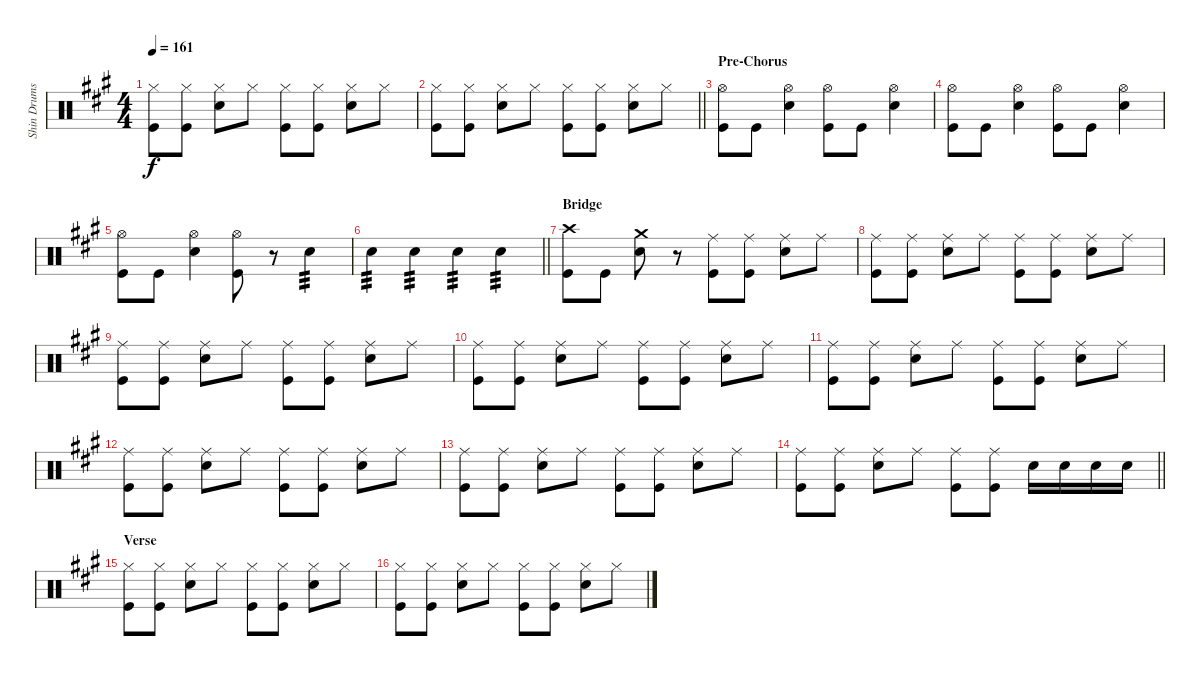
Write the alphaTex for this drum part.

\track ("Shin Drums" "Shin Drums") {instrument percussion}
\staff {score}
\articulation defaults
\ts (4 4)
\tempo 161
\clef neutral
\ks a
("Hi-Hat (closed)" "Kick (hit)").8{dy f} ("Hi-Hat (closed)" "Kick (hit)").8 ("Hi-Hat (closed)" "Snare (hit) 2").8 "Hi-Hat (closed)".8 ("Hi-Hat (closed)" "Kick (hit)").8 ("Hi-Hat (closed)" "Kick (hit)").8 ("Hi-Hat (closed)" "Snare (hit) 2").8 "Hi-Hat (closed)".8 |
\barLineRight lightlight
("Hi-Hat (closed)" "Kick (hit)").8 ("Hi-Hat (closed)" "Kick (hit)").8 ("Hi-Hat (closed)" "Snare (hit) 2").8 "Hi-Hat (closed)".8 ("Hi-Hat (closed)" "Kick (hit)").8 ("Hi-Hat (closed)" "Kick (hit)").8 ("Hi-Hat (closed)" "Snare (hit) 2").8 "Hi-Hat (closed)".8 |
\section ("" "Pre-Chorus")
("Hi-Hat (open)" "Kick (hit)").8 "Kick (hit)".8 ("Hi-Hat (open)" "Snare (hit) 2").4 ("Hi-Hat (open)" "Kick (hit)").8 "Kick (hit)".8 ("Hi-Hat (open)" "Snare (hit) 2").4 |
("Hi-Hat (open)" "Kick (hit)").8 "Kick (hit)".8 ("Hi-Hat (open)" "Snare (hit) 2").4 ("Hi-Hat (open)" "Kick (hit)").8 "Kick (hit)".8 ("Hi-Hat (open)" "Snare (hit) 2").4 |
("Hi-Hat (open)" "Kick (hit)").8 "Kick (hit)".8 ("Hi-Hat (open)" "Snare (hit) 2").4 ("Hi-Hat (open)" "Kick (hit)").8 r.8 "Snare (hit) 2".4{tp 3} |
\barLineRight lightlight "Snare (hit) 2".4{tp 3} "Snare (hit) 2".4{tp 3} "Snare (hit) 2".4{tp 3} "Snare (hit) 2".4{tp 3}
|
\section ("" "Bridge")
("Crash high (hit)" "Kick (hit)").8 "Kick (hit)".8 ("Crash medium (hit)" "Snare (hit) 2").8 r.8 ("Ride (middle)" "Kick (hit)").8 ("Ride (middle)" "Kick (hit)").8 ("Ride (middle)" "Snare (hit) 2").8 "Ride (middle)".8 |
("Ride (middle)" "Kick (hit)").8 ("Ride (middle)" "Kick (hit)").8 ("Ride (middle)" "Snare (hit) 2").8 "Ride (middle)".8 ("Ride (middle)" "Kick (hit)").8 ("Ride (middle)" "Kick (hit)").8 ("Ride (middle)" "Snare (hit) 2").8 "Ride (middle)".8 |
("Ride (middle)" "Kick (hit)").8 ("Ride (middle)" "Kick (hit)").8 ("Ride (middle)" "Snare (hit) 2").8 "Ride (middle)".8 ("Ride (middle)" "Kick (hit)").8 ("Ride (middle)" "Kick (hit)").8 ("Ride (middle)" "Snare (hit) 2").8 "Ride (middle)".8 |
("Ride (middle)" "Kick (hit)").8 ("Ride (middle)" "Kick (hit)").8 ("Ride (middle)" "Snare (hit) 2").8 "Ride (middle)".8 ("Ride (middle)" "Kick (hit)").8 ("Ride (middle)" "Kick (hit)").8 ("Ride (middle)" "Snare (hit) 2").8 "Ride (middle)".8 |
("Ride (middle)" "Kick (hit)").8 ("Ride (middle)" "Kick (hit)").8 ("Ride (middle)" "Snare (hit) 2").8 "Ride (middle)".8 ("Ride (middle)" "Kick (hit)").8 ("Ride (middle)" "Kick (hit)").8 ("Ride (middle)" "Snare (hit) 2").8 "Ride (middle)".8 |
("Ride (middle)" "Kick (hit)").8 ("Ride (middle)" "Kick (hit)").8 ("Ride (middle)" "Snare (hit) 2").8 "Ride (middle)".8 ("Ride (middle)" "Kick (hit)").8 ("Ride (middle)" "Kick (hit)").8 ("Ride (middle)" "Snare (hit) 2").8 "Ride (middle)".8 |
("Ride (middle)" "Kick (hit)").8 ("Ride (middle)" "Kick (hit)").8 ("Ride (middle)" "Snare (hit) 2").8 "Ride (middle)".8 ("Ride (middle)" "Kick (hit)").8 ("Ride (middle)" "Kick (hit)").8 ("Ride (middle)" "Snare (hit) 2").8 "Ride (middle)".8 |
\barLineRight lightlight
("Ride (middle)" "Kick (hit)").8 ("Ride (middle)" "Kick (hit)").8 ("Ride (middle)" "Snare (hit) 2").8 "Ride (middle)".8 ("Ride (middle)" "Kick (hit)").8 ("Ride (middle)" "Kick (hit)").8 "Snare (hit) 2".16 "Snare (hit) 2".16 "Snare (hit) 2".16 "Snare (hit) 2".16 |
\section ("" "Verse")
("Hi-Hat (closed)" "Kick (hit)").8 ("Hi-Hat (closed)" "Kick (hit)").8 ("Hi-Hat (closed)" "Snare (hit) 2").8 "Hi-Hat (closed)".8 ("Hi-Hat (closed)" "Kick (hit)").8 ("Hi-Hat (closed)" "Kick (hit)").8 ("Hi-Hat (closed)" "Snare (hit) 2").8 "Hi-Hat (closed)".8 |
("Hi-Hat (closed)" "Kick (hit)").8 ("Hi-Hat (closed)" "Kick (hit)").8 ("Hi-Hat (closed)" "Snare (hit) 2").8 "Hi-Hat (closed)".8 ("Hi-Hat (closed)" "Kick (hit)").8 ("Hi-Hat (closed)" "Kick (hit)").8 ("Hi-Hat (closed)" "Snare (hit) 2").8 "Hi-Hat (closed)".8
